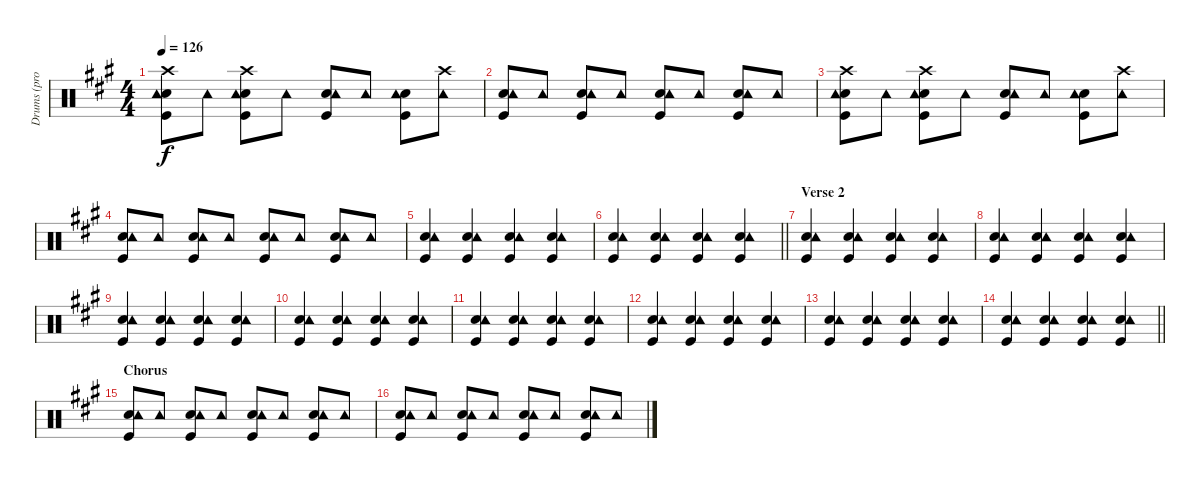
\track ("Drums (prov.)" "Drums (pro") {instrument percussion}
\staff {score}
\articulation defaults
\ts (4 4)
\tempo 126
\clef neutral
\ks a
("Crash high (hit)" "Snare (hit) 2" "Tambourine (hit)" "Kick (hit)").8{dy f} "Tambourine (hit)".8 ("Crash high (hit)" "Snare (hit) 2" "Tambourine (hit)" "Kick (hit)").8 "Tambourine (hit)".8 ("Snare (hit) 2" "Tambourine (hit)" "Kick (hit)").8 "Tambourine (hit)".8 ("Snare (hit) 2" "Tambourine (hit)" "Kick (hit)").8 ("Crash high (hit)" "Tambourine (hit)").8 |
("Snare (hit) 2" "Tambourine (hit)" "Kick (hit)").8 "Tambourine (hit)".8 ("Snare (hit) 2" "Tambourine (hit)" "Kick (hit)").8 "Tambourine (hit)".8 ("Snare (hit) 2" "Tambourine (hit)" "Kick (hit)").8 "Tambourine (hit)".8 ("Snare (hit) 2" "Tambourine (hit)" "Kick (hit)").8 "Tambourine (hit)".8 |
("Crash high (hit)" "Snare (hit) 2" "Tambourine (hit)" "Kick (hit)").8 "Tambourine (hit)".8 ("Crash high (hit)" "Snare (hit) 2" "Tambourine (hit)" "Kick (hit)").8 "Tambourine (hit)".8 ("Snare (hit) 2" "Tambourine (hit)" "Kick (hit)").8 "Tambourine (hit)".8 ("Snare (hit) 2" "Tambourine (hit)" "Kick (hit)").8 ("Crash high (hit)" "Tambourine (hit)").8 |
("Snare (hit) 2" "Tambourine (hit)" "Kick (hit)").8 "Tambourine (hit)".8 ("Snare (hit) 2" "Tambourine (hit)" "Kick (hit)").8 "Tambourine (hit)".8 ("Snare (hit) 2" "Tambourine (hit)" "Kick (hit)").8 "Tambourine (hit)".8 ("Snare (hit) 2" "Tambourine (hit)" "Kick (hit)").8 "Tambourine (hit)".8 |
("Snare (hit) 2" "Tambourine (hit)" "Kick (hit)").4 ("Snare (hit) 2" "Tambourine (hit)" "Kick (hit)").4 ("Snare (hit) 2" "Tambourine (hit)" "Kick (hit)").4 ("Snare (hit) 2" "Tambourine (hit)" "Kick (hit)").4 |
\barLineRight lightlight
("Snare (hit) 2" "Tambourine (hit)" "Kick (hit)").4 ("Snare (hit) 2" "Tambourine (hit)" "Kick (hit)").4 ("Snare (hit) 2" "Tambourine (hit)" "Kick (hit)").4 ("Snare (hit) 2" "Tambourine (hit)" "Kick (hit)").4 |
\section ("" "Verse 2")
("Snare (hit) 2" "Tambourine (hit)" "Kick (hit)").4 ("Snare (hit) 2" "Tambourine (hit)" "Kick (hit)").4 ("Snare (hit) 2" "Tambourine (hit)" "Kick (hit)").4 ("Snare (hit) 2" "Tambourine (hit)" "Kick (hit)").4 |
("Snare (hit) 2" "Tambourine (hit)" "Kick (hit)").4 ("Snare (hit) 2" "Tambourine (hit)" "Kick (hit)").4 ("Snare (hit) 2" "Tambourine (hit)" "Kick (hit)").4 ("Snare (hit) 2" "Tambourine (hit)" "Kick (hit)").4 |
("Snare (hit) 2" "Tambourine (hit)" "Kick (hit)").4 ("Snare (hit) 2" "Tambourine (hit)" "Kick (hit)").4 ("Snare (hit) 2" "Tambourine (hit)" "Kick (hit)").4 ("Snare (hit) 2" "Tambourine (hit)" "Kick (hit)").4 |
("Snare (hit) 2" "Tambourine (hit)" "Kick (hit)").4 ("Snare (hit) 2" "Tambourine (hit)" "Kick (hit)").4 ("Snare (hit) 2" "Tambourine (hit)" "Kick (hit)").4 ("Snare (hit) 2" "Tambourine (hit)" "Kick (hit)").4 |
("Snare (hit) 2" "Tambourine (hit)" "Kick (hit)").4 ("Snare (hit) 2" "Tambourine (hit)" "Kick (hit)").4 ("Snare (hit) 2" "Tambourine (hit)" "Kick (hit)").4 ("Snare (hit) 2" "Tambourine (hit)" "Kick (hit)").4 |
("Snare (hit) 2" "Tambourine (hit)" "Kick (hit)").4 ("Snare (hit) 2" "Tambourine (hit)" "Kick (hit)").4 ("Snare (hit) 2" "Tambourine (hit)" "Kick (hit)").4 ("Snare (hit) 2" "Tambourine (hit)" "Kick (hit)").4 |
("Snare (hit) 2" "Tambourine (hit)" "Kick (hit)").4 ("Snare (hit) 2" "Tambourine (hit)" "Kick (hit)").4 ("Snare (hit) 2" "Tambourine (hit)" "Kick (hit)").4 ("Snare (hit) 2" "Tambourine (hit)" "Kick (hit)").4 |
\barLineRight lightlight
("Snare (hit) 2" "Tambourine (hit)" "Kick (hit)").4 ("Snare (hit) 2" "Tambourine (hit)" "Kick (hit)").4 ("Snare (hit) 2" "Tambourine (hit)" "Kick (hit)").4 ("Snare (hit) 2" "Tambourine (hit)" "Kick (hit)").4 |
\section ("" "Chorus")
("Snare (hit) 2" "Tambourine (hit)" "Kick (hit)").8 "Tambourine (hit)".8 ("Snare (hit) 2" "Tambourine (hit)" "Kick (hit)").8 "Tambourine (hit)".8 ("Snare (hit) 2" "Tambourine (hit)" "Kick (hit)").8 "Tambourine (hit)".8 ("Snare (hit) 2" "Tambourine (hit)" "Kick (hit)").8 "Tambourine (hit)".8 |
("Snare (hit) 2" "Tambourine (hit)" "Kick (hit)").8 "Tambourine (hit)".8 ("Snare (hit) 2" "Tambourine (hit)" "Kick (hit)").8 "Tambourine (hit)".8 ("Snare (hit) 2" "Tambourine (hit)" "Kick (hit)").8 "Tambourine (hit)".8 ("Snare (hit) 2" "Tambourine (hit)" "Kick (hit)").8 "Tambourine (hit)".8
